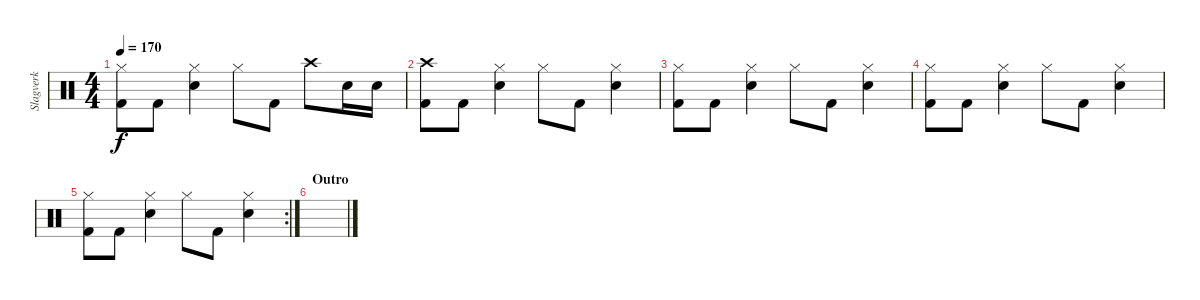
\track ("Slagverk" "Slagverk") {instrument percussion}
\staff {score}
\articulation defaults
\ts (4 4)
\tempo 170
\clef neutral
\ks c
("Kick (hit) 2" "Hi-Hat (closed)").8{dy f} "Kick (hit) 2".8 ("Hi-Hat (closed)" "Snare (hit) 2").4 "Hi-Hat (closed)".8 "Kick (hit) 2".8 "Crash high (hit)".8 "Snare (hit) 2".16 "Snare (hit) 2".16 |
("Kick (hit) 2" "Crash high (hit)").8 "Kick (hit) 2".8 ("Hi-Hat (closed)" "Snare (hit) 2").4 "Hi-Hat (closed)".8 "Kick (hit) 2".8 ("Hi-Hat (closed)" "Snare (hit) 2").4 |
("Kick (hit) 2" "Hi-Hat (closed)").8 "Kick (hit) 2".8 ("Hi-Hat (closed)" "Snare (hit) 2").4 "Hi-Hat (closed)".8 "Kick (hit) 2".8 ("Hi-Hat (closed)" "Snare (hit) 2").4 |
("Kick (hit) 2" "Hi-Hat (closed)").8 "Kick (hit) 2".8 ("Hi-Hat (closed)" "Snare (hit) 2").4 "Hi-Hat (closed)".8 "Kick (hit) 2".8 ("Hi-Hat (closed)" "Snare (hit) 2").4 |
\rc 2
("Kick (hit) 2" "Hi-Hat (closed)").8 "Kick (hit) 2".8 ("Hi-Hat (closed)" "Snare (hit) 2").4 "Hi-Hat (closed)".8 "Kick (hit) 2".8 ("Hi-Hat (closed)" "Snare (hit) 2").4 |
\section ("" "Outro")
